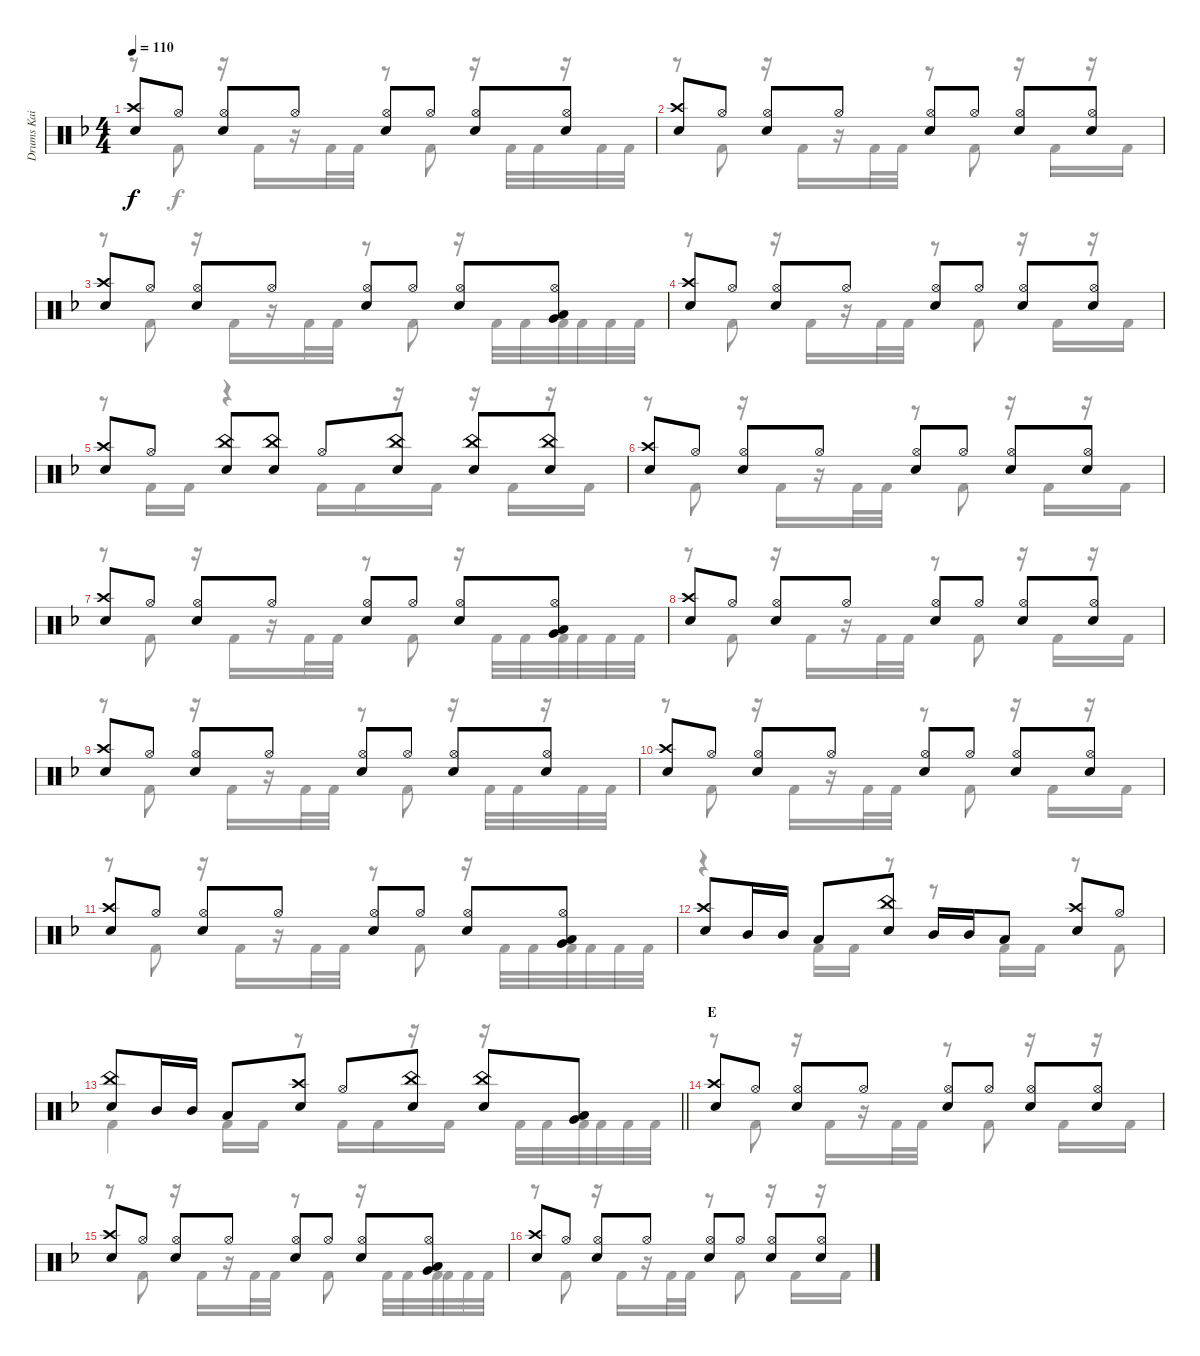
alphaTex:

\track ("Drums Kai" "Drums Kai") {instrument percussion}
\staff {score}
\articulation defaults
\voice
\ts (4 4)
\tempo 110
\clef neutral
\ks f
("Crash high (hit)" "Electric Snare (hit)").8{dy f} "Hi-Hat (open)".8 ("Hi-Hat (open)" "Electric Snare (hit)").8 "Hi-Hat (open)".8 ("Hi-Hat (open)" "Electric Snare (hit)").8 "Hi-Hat (open)".8 ("Hi-Hat (open)" "Electric Snare (hit)").8 ("Hi-Hat (open)" "Electric Snare (hit)").8 |
("Crash high (hit)" "Electric Snare (hit)").8 "Hi-Hat (open)".8 ("Hi-Hat (open)" "Electric Snare (hit)").8 "Hi-Hat (open)".8 ("Hi-Hat (open)" "Electric Snare (hit)").8 "Hi-Hat (open)".8 ("Hi-Hat (open)" "Electric Snare (hit)").8 ("Hi-Hat (open)" "Electric Snare (hit)").8 |
("Crash high (hit)" "Electric Snare (hit)").8 "Hi-Hat (open)".8 ("Hi-Hat (open)" "Electric Snare (hit)").8 "Hi-Hat (open)".8 ("Hi-Hat (open)" "Electric Snare (hit)").8 "Hi-Hat (open)".8 ("Hi-Hat (open)" "Electric Snare (hit)").8 ("Hi-Hat (open)" "Low Tom (hit)" "Very Low Tom (hit)").8 |
("Crash high (hit)" "Electric Snare (hit)").8 "Hi-Hat (open)".8 ("Hi-Hat (open)" "Electric Snare (hit)").8 "Hi-Hat (open)".8 ("Hi-Hat (open)" "Electric Snare (hit)").8 "Hi-Hat (open)".8 ("Hi-Hat (open)" "Electric Snare (hit)").8 ("Hi-Hat (open)" "Electric Snare (hit)").8 |
("Crash high (hit)" "Electric Snare (hit)").8 "Hi-Hat (open)".8 ("China (hit)" "Electric Snare (hit)").8 ("China (hit)" "Electric Snare (hit)").8 "Hi-Hat (open)".8 ("China (hit)" "Electric Snare (hit)").8 ("China (hit)" "Electric Snare (hit)").8 ("China (hit)" "Electric Snare (hit)").8 |
("Crash high (hit)" "Electric Snare (hit)").8 "Hi-Hat (open)".8 ("Hi-Hat (open)" "Electric Snare (hit)").8 "Hi-Hat (open)".8 ("Hi-Hat (open)" "Electric Snare (hit)").8 "Hi-Hat (open)".8 ("Hi-Hat (open)" "Electric Snare (hit)").8 ("Hi-Hat (open)" "Electric Snare (hit)").8 |
("Crash high (hit)" "Electric Snare (hit)").8 "Hi-Hat (open)".8 ("Hi-Hat (open)" "Electric Snare (hit)").8 "Hi-Hat (open)".8 ("Hi-Hat (open)" "Electric Snare (hit)").8 "Hi-Hat (open)".8 ("Hi-Hat (open)" "Electric Snare (hit)").8 ("Hi-Hat (open)" "Low Tom (hit)" "Very Low Tom (hit)").8 |
("Crash high (hit)" "Electric Snare (hit)").8 "Hi-Hat (open)".8 ("Hi-Hat (open)" "Electric Snare (hit)").8 "Hi-Hat (open)".8 ("Hi-Hat (open)" "Electric Snare (hit)").8 "Hi-Hat (open)".8 ("Hi-Hat (open)" "Electric Snare (hit)").8 ("Hi-Hat (open)" "Electric Snare (hit)").8 |
("Crash high (hit)" "Electric Snare (hit)").8 "Hi-Hat (open)".8 ("Hi-Hat (open)" "Electric Snare (hit)").8 "Hi-Hat (open)".8 ("Hi-Hat (open)" "Electric Snare (hit)").8 "Hi-Hat (open)".8 ("Hi-Hat (open)" "Electric Snare (hit)").8 ("Hi-Hat (open)" "Electric Snare (hit)").8 |
("Crash high (hit)" "Electric Snare (hit)").8 "Hi-Hat (open)".8 ("Hi-Hat (open)" "Electric Snare (hit)").8 "Hi-Hat (open)".8 ("Hi-Hat (open)" "Electric Snare (hit)").8 "Hi-Hat (open)".8 ("Hi-Hat (open)" "Electric Snare (hit)").8 ("Hi-Hat (open)" "Electric Snare (hit)").8 |
("Crash high (hit)" "Electric Snare (hit)").8 "Hi-Hat (open)".8 ("Hi-Hat (open)" "Electric Snare (hit)").8 "Hi-Hat (open)".8 ("Hi-Hat (open)" "Electric Snare (hit)").8 "Hi-Hat (open)".8 ("Hi-Hat (open)" "Electric Snare (hit)").8 ("Hi-Hat (open)" "Low Tom (hit)" "Very Low Tom (hit)").8 |
("Crash high (hit)" "Electric Snare (hit)").8 "Mid Tom (hit)".16 "Mid Tom (hit)".16 "Low Tom (hit)".8 ("China (hit)" "Electric Snare (hit)").8 "Mid Tom (hit)".16 "Mid Tom (hit)".16 "Low Tom (hit)".8 ("Crash high (hit)" "Electric Snare (hit)").8 "Hi-Hat (open)".8 |
\barLineRight lightlight
("China (hit)" "Electric Snare (hit)").8 "Mid Tom (hit)".16 "Mid Tom (hit)".16 "Low Tom (hit)".8 ("Crash high (hit)" "Electric Snare (hit)").8 "Hi-Hat (open)".8 ("China (hit)" "Electric Snare (hit)").8 ("China (hit)" "Electric Snare (hit)").8 ("Low Tom (hit)" "Very Low Tom (hit)").8 |
\section ("" "E")
("Crash high (hit)" "Electric Snare (hit)").8 "Hi-Hat (open)".8 ("Hi-Hat (open)" "Electric Snare (hit)").8 "Hi-Hat (open)".8 ("Hi-Hat (open)" "Electric Snare (hit)").8 "Hi-Hat (open)".8 ("Hi-Hat (open)" "Electric Snare (hit)").8 ("Hi-Hat (open)" "Electric Snare (hit)").8 |
("Crash high (hit)" "Electric Snare (hit)").8 "Hi-Hat (open)".8 ("Hi-Hat (open)" "Electric Snare (hit)").8 "Hi-Hat (open)".8 ("Hi-Hat (open)" "Electric Snare (hit)").8 "Hi-Hat (open)".8 ("Hi-Hat (open)" "Electric Snare (hit)").8 ("Hi-Hat (open)" "Low Tom (hit)" "Very Low Tom (hit)").8 |
("Crash high (hit)" "Electric Snare (hit)").8 "Hi-Hat (open)".8 ("Hi-Hat (open)" "Electric Snare (hit)").8 "Hi-Hat (open)".8 ("Hi-Hat (open)" "Electric Snare (hit)").8 "Hi-Hat (open)".8 ("Hi-Hat (open)" "Electric Snare (hit)").8 ("Hi-Hat (open)" "Electric Snare (hit)").8
\voice
\clef neutral
\ottava regular
\simile none
\ks f
r.8{dy f} "Kick (hit) 2".8 r.16 "Kick (hit) 2".16 r.16 "Kick (hit) 2".32 "Kick (hit) 2".32 r.8 "Kick (hit) 2".8 r.16 "Kick (hit) 2".32 "Kick (hit) 2".32 r.16 "Kick (hit) 2".32 "Kick (hit) 2".32 |
r.8 "Kick (hit) 2".8 r.16 "Kick (hit) 2".16 r.16 "Kick (hit) 2".32 "Kick (hit) 2".32 r.8 "Kick (hit) 2".8 r.16 "Kick (hit) 2".16 r.16 "Kick (hit) 2".16 |
r.8 "Kick (hit) 2".8 r.16 "Kick (hit) 2".16 r.16 "Kick (hit) 2".32 "Kick (hit) 2".32 r.8 "Kick (hit) 2".8 r.16 "Kick (hit) 2".32 "Kick (hit) 2".32 "Kick (hit) 2".32 "Kick (hit) 2".32 "Kick (hit) 2".32 "Kick (hit) 2".32 |
r.8 "Kick (hit) 2".8 r.16 "Kick (hit) 2".16 r.16 "Kick (hit) 2".32 "Kick (hit) 2".32 r.8 "Kick (hit) 2".8 r.16 "Kick (hit) 2".16 r.16 "Kick (hit) 2".16 |
r.8 "Kick (hit) 2".16 "Kick (hit) 2".16 r.4 "Kick (hit) 2".16 "Kick (hit) 2".16 r.16 "Kick (hit) 2".16 r.16 "Kick (hit) 2".16 r.16 "Kick (hit) 2".16 |
r.8 "Kick (hit) 2".8 r.16 "Kick (hit) 2".16 r.16 "Kick (hit) 2".32 "Kick (hit) 2".32 r.8 "Kick (hit) 2".8 r.16 "Kick (hit) 2".16 r.16 "Kick (hit) 2".16 |
r.8 "Kick (hit) 2".8 r.16 "Kick (hit) 2".16 r.16 "Kick (hit) 2".32 "Kick (hit) 2".32 r.8 "Kick (hit) 2".8 r.16 "Kick (hit) 2".32 "Kick (hit) 2".32 "Kick (hit) 2".32 "Kick (hit) 2".32 "Kick (hit) 2".32 "Kick (hit) 2".32 |
r.8 "Kick (hit) 2".8 r.16 "Kick (hit) 2".16 r.16 "Kick (hit) 2".32 "Kick (hit) 2".32 r.8 "Kick (hit) 2".8 r.16 "Kick (hit) 2".16 r.16 "Kick (hit) 2".16 |
r.8 "Kick (hit) 2".8 r.16 "Kick (hit) 2".16 r.16 "Kick (hit) 2".32 "Kick (hit) 2".32 r.8 "Kick (hit) 2".8 r.16 "Kick (hit) 2".32 "Kick (hit) 2".32 r.16 "Kick (hit) 2".32 "Kick (hit) 2".32 |
r.8 "Kick (hit) 2".8 r.16 "Kick (hit) 2".16 r.16 "Kick (hit) 2".32 "Kick (hit) 2".32 r.8 "Kick (hit) 2".8 r.16 "Kick (hit) 2".16 r.16 "Kick (hit) 2".16 |
r.8 "Kick (hit) 2".8 r.16 "Kick (hit) 2".16 r.16 "Kick (hit) 2".32 "Kick (hit) 2".32 r.8 "Kick (hit) 2".8 r.16 "Kick (hit) 2".32 "Kick (hit) 2".32 "Kick (hit) 2".32 "Kick (hit) 2".32 "Kick (hit) 2".32 "Kick (hit) 2".32 |
r.4 "Kick (hit) 2".16 "Kick (hit) 2".16 r.8 r.8 "Kick (hit) 2".16 "Kick (hit) 2".16 r.8 "Kick (hit) 2".8 |
\barLineRight lightlight "Kick (hit) 2".4 "Kick (hit) 2".16 "Kick (hit) 2".16
r.8 "Kick (hit) 2".16 "Kick (hit) 2".16 r.16 "Kick (hit) 2".16 r.16 "Kick (hit) 2".32 "Kick (hit) 2".32 "Kick (hit) 2".32 "Kick (hit) 2".32 "Kick (hit) 2".32 "Kick (hit) 2".32 |
r.8 "Kick (hit) 2".8 r.16 "Kick (hit) 2".16 r.16 "Kick (hit) 2".32 "Kick (hit) 2".32 r.8 "Kick (hit) 2".8 r.16 "Kick (hit) 2".16 r.16 "Kick (hit) 2".16 |
r.8 "Kick (hit) 2".8 r.16 "Kick (hit) 2".16 r.16 "Kick (hit) 2".32 "Kick (hit) 2".32 r.8 "Kick (hit) 2".8 r.16 "Kick (hit) 2".32 "Kick (hit) 2".32 "Kick (hit) 2".32 "Kick (hit) 2".32 "Kick (hit) 2".32 "Kick (hit) 2".32 |
r.8 "Kick (hit) 2".8 r.16 "Kick (hit) 2".16 r.16 "Kick (hit) 2".32 "Kick (hit) 2".32 r.8 "Kick (hit) 2".8 r.16 "Kick (hit) 2".16 r.16 "Kick (hit) 2".16
